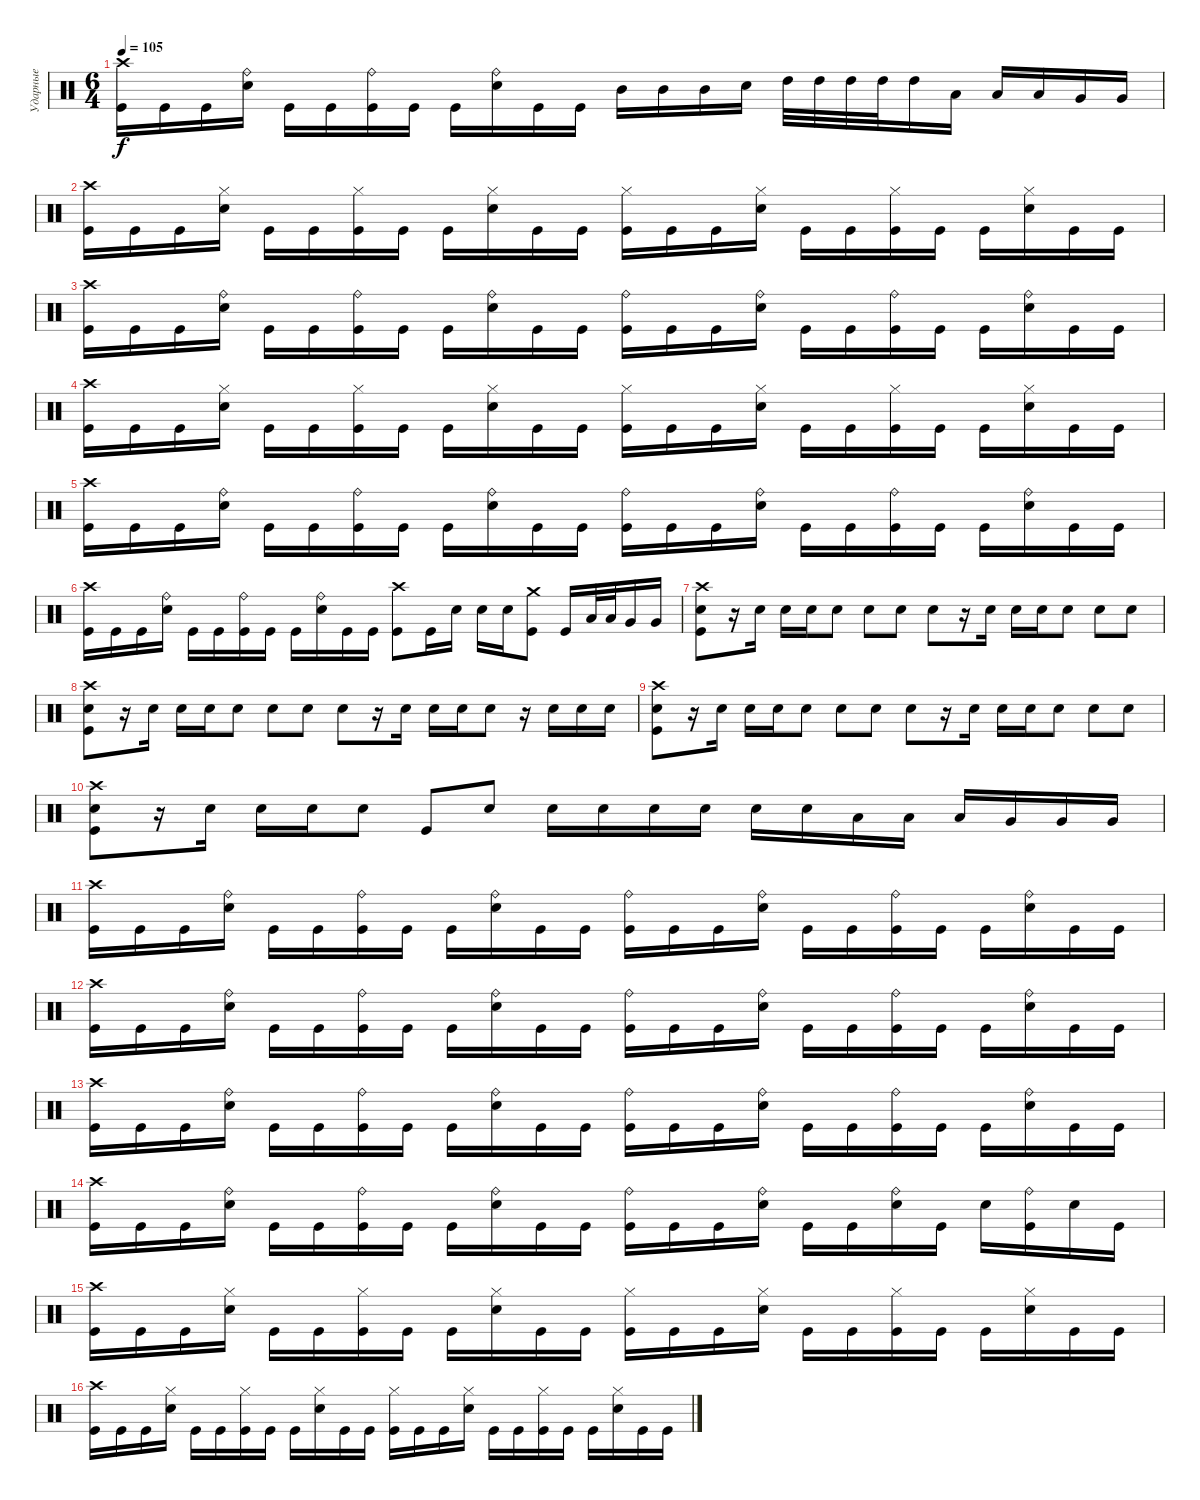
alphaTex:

\track ("Ударные" "Ударные") {instrument percussion}
\staff {score}
\articulation defaults
\ts (6 4)
\tempo 105
\clef neutral
\ks c
("Crash high (hit)" "Kick (hit)").16{dy f} "Kick (hit)".16 "Kick (hit)".16 ("Ride (bell)" "Electric Snare (hit)").16 "Kick (hit)".16 "Kick (hit)".16 ("Ride (bell)" "Kick (hit)").16 "Kick (hit)".16 "Kick (hit)".16 ("Ride (bell)" "Electric Snare (hit)").16 "Kick (hit)".16 "Kick (hit)".16 "Mid Tom (hit)".16 "Mid Tom (hit)".16 "Mid Tom (hit)".16 "Electric Snare (hit)".16 "High Tom (hit)".32 "High Tom (hit)".32 "High Tom (hit)".32 "High Tom (hit)".32 "High Tom (hit)".16 "Low Tom (hit)".16 "Low Tom (hit)".16 "Low Tom (hit)".16 "Very Low Tom (hit)".16 "Very Low Tom (hit)".16 |
("Crash high (hit)" "Kick (hit)").16 "Kick (hit)".16 "Kick (hit)".16 ("Hi-Hat (closed)" "Electric Snare (hit)").16 "Kick (hit)".16 "Kick (hit)".16 ("Hi-Hat (closed)" "Kick (hit)").16 "Kick (hit)".16 "Kick (hit)".16 ("Hi-Hat (closed)" "Electric Snare (hit)").16 "Kick (hit)".16 "Kick (hit)".16 ("Hi-Hat (closed)" "Kick (hit)").16 "Kick (hit)".16 "Kick (hit)".16 ("Hi-Hat (closed)" "Electric Snare (hit)").16 "Kick (hit)".16 "Kick (hit)".16 ("Hi-Hat (closed)" "Kick (hit)").16 "Kick (hit)".16 "Kick (hit)".16 ("Hi-Hat (closed)" "Electric Snare (hit)").16 "Kick (hit)".16 "Kick (hit)".16 |
("Crash high (hit)" "Kick (hit)").16 "Kick (hit)".16 "Kick (hit)".16 ("Ride (bell)" "Electric Snare (hit)").16 "Kick (hit)".16 "Kick (hit)".16 ("Ride (bell)" "Kick (hit)").16 "Kick (hit)".16 "Kick (hit)".16 ("Ride (bell)" "Electric Snare (hit)").16 "Kick (hit)".16 "Kick (hit)".16 ("Ride (bell)" "Kick (hit)").16 "Kick (hit)".16 "Kick (hit)".16 ("Ride (bell)" "Electric Snare (hit)").16 "Kick (hit)".16 "Kick (hit)".16 ("Ride (bell)" "Kick (hit)").16 "Kick (hit)".16 "Kick (hit)".16 ("Ride (bell)" "Electric Snare (hit)").16 "Kick (hit)".16 "Kick (hit)".16 |
("Crash high (hit)" "Kick (hit)").16 "Kick (hit)".16 "Kick (hit)".16 ("Hi-Hat (closed)" "Electric Snare (hit)").16 "Kick (hit)".16 "Kick (hit)".16 ("Hi-Hat (closed)" "Kick (hit)").16 "Kick (hit)".16 "Kick (hit)".16 ("Hi-Hat (closed)" "Electric Snare (hit)").16 "Kick (hit)".16 "Kick (hit)".16 ("Hi-Hat (closed)" "Kick (hit)").16 "Kick (hit)".16 "Kick (hit)".16 ("Hi-Hat (closed)" "Electric Snare (hit)").16 "Kick (hit)".16 "Kick (hit)".16 ("Hi-Hat (closed)" "Kick (hit)").16 "Kick (hit)".16 "Kick (hit)".16 ("Hi-Hat (closed)" "Electric Snare (hit)").16 "Kick (hit)".16 "Kick (hit)".16 |
("Crash high (hit)" "Kick (hit)").16 "Kick (hit)".16 "Kick (hit)".16 ("Ride (bell)" "Electric Snare (hit)").16 "Kick (hit)".16 "Kick (hit)".16 ("Ride (bell)" "Kick (hit)").16 "Kick (hit)".16 "Kick (hit)".16 ("Ride (bell)" "Electric Snare (hit)").16 "Kick (hit)".16 "Kick (hit)".16 ("Ride (bell)" "Kick (hit)").16 "Kick (hit)".16 "Kick (hit)".16 ("Ride (bell)" "Electric Snare (hit)").16 "Kick (hit)".16 "Kick (hit)".16 ("Ride (bell)" "Kick (hit)").16 "Kick (hit)".16 "Kick (hit)".16 ("Ride (bell)" "Electric Snare (hit)").16 "Kick (hit)".16 "Kick (hit)".16 |
("Crash high (hit)" "Kick (hit)").16 "Kick (hit)".16 "Kick (hit)".16 ("Ride (bell)" "Electric Snare (hit)").16 "Kick (hit)".16 "Kick (hit)".16 ("Ride (bell)" "Kick (hit)").16 "Kick (hit)".16 "Kick (hit)".16 ("Ride (bell)" "Electric Snare (hit)").16 "Kick (hit)".16 "Kick (hit)".16 ("Crash high (hit)" "Kick (hit)").8 "Kick (hit)".16 "Electric Snare (hit)".16 "Electric Snare (hit)".16 "Electric Snare (hit)".16 ("Crash medium (hit)" "Kick (hit)").8 "Kick (hit)".16 "Low Tom (hit)".32 "Low Tom (hit)".32 "Very Low Tom (hit)".16 "Very Low Tom (hit)".16 |
("Crash high (hit)" "Electric Snare (hit)" "Kick (hit)").8 r.16 "Electric Snare (hit)".16 "Electric Snare (hit)".16 "Electric Snare (hit)".16 "Electric Snare (hit)".8 "Electric Snare (hit)".8 "Electric Snare (hit)".8 "Electric Snare (hit)".8 r.16 "Electric Snare (hit)".16 "Electric Snare (hit)".16 "Electric Snare (hit)".16 "Electric Snare (hit)".8 "Electric Snare (hit)".8 "Electric Snare (hit)".8 |
("Crash high (hit)" "Electric Snare (hit)" "Kick (hit)").8 r.16 "Electric Snare (hit)".16 "Electric Snare (hit)".16 "Electric Snare (hit)".16 "Electric Snare (hit)".8 "Electric Snare (hit)".8 "Electric Snare (hit)".8 "Electric Snare (hit)".8 r.16 "Electric Snare (hit)".16 "Electric Snare (hit)".16 "Electric Snare (hit)".16 "Electric Snare (hit)".8 r.16 "Electric Snare (hit)".16 "Electric Snare (hit)".16 "Electric Snare (hit)".16 |
("Crash high (hit)" "Electric Snare (hit)" "Kick (hit)").8 r.16 "Electric Snare (hit)".16 "Electric Snare (hit)".16 "Electric Snare (hit)".16 "Electric Snare (hit)".8 "Electric Snare (hit)".8 "Electric Snare (hit)".8 "Electric Snare (hit)".8 r.16 "Electric Snare (hit)".16 "Electric Snare (hit)".16 "Electric Snare (hit)".16 "Electric Snare (hit)".8 "Electric Snare (hit)".8 "Electric Snare (hit)".8 |
("Crash high (hit)" "Electric Snare (hit)" "Kick (hit)").8 r.16 "Electric Snare (hit)".16 "Electric Snare (hit)".16 "Electric Snare (hit)".16 "Electric Snare (hit)".8 "Kick (hit)".8 "Electric Snare (hit)".8 "Electric Snare (hit)".16 "Electric Snare (hit)".16 "Electric Snare (hit)".16 "Electric Snare (hit)".16 "Electric Snare (hit)".16 "Electric Snare (hit)".16 "Low Tom (hit)".16 "Low Tom (hit)".16 "Low Tom (hit)".16 "Very Low Tom (hit)".16 "Very Low Tom (hit)".16 "Very Low Tom (hit)".16 |
("Crash high (hit)" "Kick (hit)").16 "Kick (hit)".16 "Kick (hit)".16 ("Ride (bell)" "Electric Snare (hit)").16 "Kick (hit)".16 "Kick (hit)".16 ("Ride (bell)" "Kick (hit)").16 "Kick (hit)".16 "Kick (hit)".16 ("Ride (bell)" "Electric Snare (hit)").16 "Kick (hit)".16 "Kick (hit)".16 ("Ride (bell)" "Kick (hit)").16 "Kick (hit)".16 "Kick (hit)".16 ("Ride (bell)" "Electric Snare (hit)").16 "Kick (hit)".16 "Kick (hit)".16 ("Ride (bell)" "Kick (hit)").16 "Kick (hit)".16 "Kick (hit)".16 ("Ride (bell)" "Electric Snare (hit)").16 "Kick (hit)".16 "Kick (hit)".16 |
("Crash high (hit)" "Kick (hit)").16 "Kick (hit)".16 "Kick (hit)".16 ("Ride (bell)" "Electric Snare (hit)").16 "Kick (hit)".16 "Kick (hit)".16 ("Ride (bell)" "Kick (hit)").16 "Kick (hit)".16 "Kick (hit)".16 ("Ride (bell)" "Electric Snare (hit)").16 "Kick (hit)".16 "Kick (hit)".16 ("Ride (bell)" "Kick (hit)").16 "Kick (hit)".16 "Kick (hit)".16 ("Ride (bell)" "Electric Snare (hit)").16 "Kick (hit)".16 "Kick (hit)".16 ("Ride (bell)" "Kick (hit)").16 "Kick (hit)".16 "Kick (hit)".16 ("Ride (bell)" "Electric Snare (hit)").16 "Kick (hit)".16 "Kick (hit)".16 |
("Crash high (hit)" "Kick (hit)").16 "Kick (hit)".16 "Kick (hit)".16 ("Ride (bell)" "Electric Snare (hit)").16 "Kick (hit)".16 "Kick (hit)".16 ("Ride (bell)" "Kick (hit)").16 "Kick (hit)".16 "Kick (hit)".16 ("Ride (bell)" "Electric Snare (hit)").16 "Kick (hit)".16 "Kick (hit)".16 ("Ride (bell)" "Kick (hit)").16 "Kick (hit)".16 "Kick (hit)".16 ("Ride (bell)" "Electric Snare (hit)").16 "Kick (hit)".16 "Kick (hit)".16 ("Ride (bell)" "Kick (hit)").16 "Kick (hit)".16 "Kick (hit)".16 ("Ride (bell)" "Electric Snare (hit)").16 "Kick (hit)".16 "Kick (hit)".16 |
("Crash high (hit)" "Kick (hit)").16 "Kick (hit)".16 "Kick (hit)".16 ("Ride (bell)" "Electric Snare (hit)").16 "Kick (hit)".16 "Kick (hit)".16 ("Ride (bell)" "Kick (hit)").16 "Kick (hit)".16 "Kick (hit)".16 ("Ride (bell)" "Electric Snare (hit)").16 "Kick (hit)".16 "Kick (hit)".16 ("Ride (bell)" "Kick (hit)").16 "Kick (hit)".16 "Kick (hit)".16 ("Ride (bell)" "Electric Snare (hit)").16 "Kick (hit)".16 "Kick (hit)".16 ("Ride (bell)" "Electric Snare (hit)").16 "Kick (hit)".16 "Electric Snare (hit)".16 ("Ride (bell)" "Kick (hit)").16 "Electric Snare (hit)".16 "Kick (hit)".16 |
("Crash high (hit)" "Kick (hit)").16 "Kick (hit)".16 "Kick (hit)".16 ("Hi-Hat (closed)" "Electric Snare (hit)").16 "Kick (hit)".16 "Kick (hit)".16 ("Hi-Hat (closed)" "Kick (hit)").16 "Kick (hit)".16 "Kick (hit)".16 ("Hi-Hat (closed)" "Electric Snare (hit)").16 "Kick (hit)".16 "Kick (hit)".16 ("Hi-Hat (closed)" "Kick (hit)").16 "Kick (hit)".16 "Kick (hit)".16 ("Hi-Hat (closed)" "Electric Snare (hit)").16 "Kick (hit)".16 "Kick (hit)".16 ("Hi-Hat (closed)" "Kick (hit)").16 "Kick (hit)".16 "Kick (hit)".16 ("Hi-Hat (closed)" "Electric Snare (hit)").16 "Kick (hit)".16 "Kick (hit)".16 |
("Crash high (hit)" "Kick (hit)").16 "Kick (hit)".16 "Kick (hit)".16 ("Hi-Hat (closed)" "Electric Snare (hit)").16 "Kick (hit)".16 "Kick (hit)".16 ("Hi-Hat (closed)" "Kick (hit)").16 "Kick (hit)".16 "Kick (hit)".16 ("Hi-Hat (closed)" "Electric Snare (hit)").16 "Kick (hit)".16 "Kick (hit)".16 ("Hi-Hat (closed)" "Kick (hit)").16 "Kick (hit)".16 "Kick (hit)".16 ("Hi-Hat (closed)" "Electric Snare (hit)").16 "Kick (hit)".16 "Kick (hit)".16 ("Hi-Hat (closed)" "Kick (hit)").16 "Kick (hit)".16 "Kick (hit)".16 ("Hi-Hat (closed)" "Electric Snare (hit)").16 "Kick (hit)".16 "Kick (hit)".16
